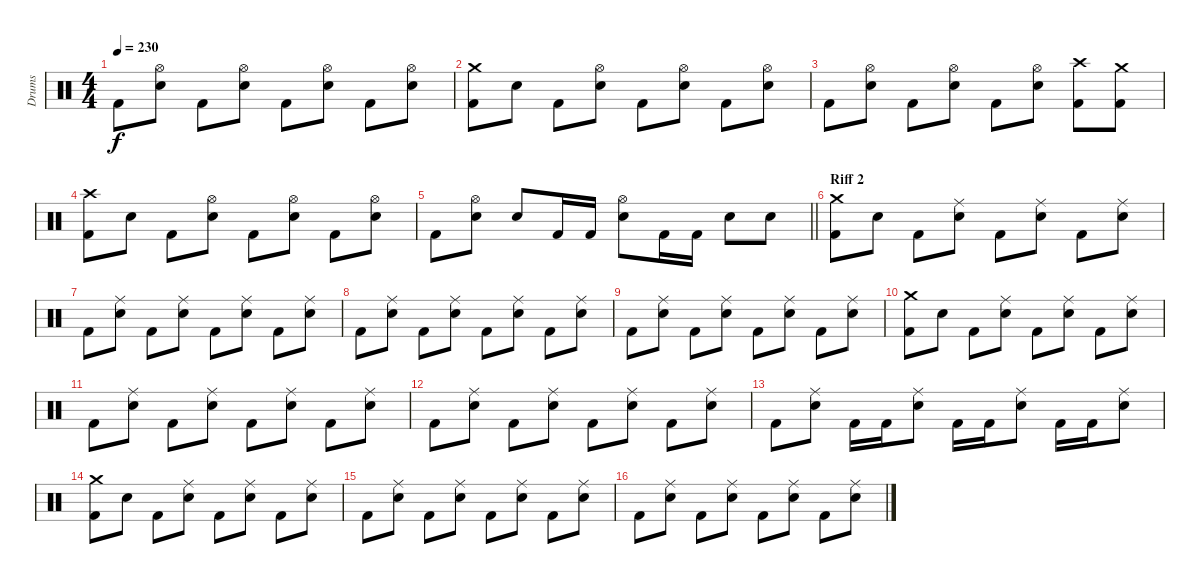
\track ("Drums" "Drums") {instrument percussion}
\staff {score}
\articulation defaults
\ts (4 4)
\tempo 230
\clef neutral
\ks c "Kick (hit) 2".8{dy f}
("Hi-Hat (open)" "Electric Snare (hit)").8 "Kick (hit) 2".8 ("Hi-Hat (open)" "Electric Snare (hit)").8 "Kick (hit) 2".8 ("Hi-Hat (open)" "Electric Snare (hit)").8 "Kick (hit) 2".8 ("Hi-Hat (open)" "Electric Snare (hit)").8 |
("Crash medium (hit)" "Kick (hit) 2").8 "Electric Snare (hit)".8 "Kick (hit) 2".8 ("Hi-Hat (open)" "Electric Snare (hit)").8 "Kick (hit) 2".8 ("Hi-Hat (open)" "Electric Snare (hit)").8 "Kick (hit) 2".8 ("Hi-Hat (open)" "Electric Snare (hit)").8 |
"Kick (hit) 2".8 ("Hi-Hat (open)" "Electric Snare (hit)").8 "Kick (hit) 2".8 ("Hi-Hat (open)" "Electric Snare (hit)").8 "Kick (hit) 2".8 ("Hi-Hat (open)" "Electric Snare (hit)").8 ("Crash high (hit)" "Kick (hit) 2").8 ("Crash medium (hit)" "Kick (hit) 2").8 |
("Kick (hit) 2" "Crash high (hit)").8 "Electric Snare (hit)".8 "Kick (hit) 2".8 ("Electric Snare (hit)" "Hi-Hat (open)").8 "Kick (hit) 2".8 ("Electric Snare (hit)" "Hi-Hat (open)").8 "Kick (hit) 2".8 ("Electric Snare (hit)" "Hi-Hat (open)").8 |
\barLineRight lightlight "Kick (hit) 2".8
("Electric Snare (hit)" "Hi-Hat (open)").8 "Electric Snare (hit)".8 "Kick (hit) 2".16 "Kick (hit) 2".16 ("Hi-Hat (open)" "Electric Snare (hit)").8 "Kick (hit) 2".16 "Kick (hit) 2".16 "Electric Snare (hit)".8 "Electric Snare (hit)".8 |
\section ("" "Riff 2")
("Crash medium (hit)" "Kick (hit) 2").8 "Electric Snare (hit)".8 "Kick (hit) 2".8 ("Electric Snare (hit)" "Ride (middle)").8 "Kick (hit) 2".8 ("Electric Snare (hit)" "Ride (middle)").8 "Kick (hit) 2".8 ("Electric Snare (hit)" "Ride (middle)").8 |
"Kick (hit) 2".8 ("Electric Snare (hit)" "Ride (middle)").8 "Kick (hit) 2".8 ("Electric Snare (hit)" "Ride (middle)").8 "Kick (hit) 2".8 ("Electric Snare (hit)" "Ride (middle)").8 "Kick (hit) 2".8 ("Electric Snare (hit)" "Ride (middle)").8 |
"Kick (hit) 2".8 ("Electric Snare (hit)" "Ride (middle)").8 "Kick (hit) 2".8 ("Electric Snare (hit)" "Ride (middle)").8 "Kick (hit) 2".8 ("Electric Snare (hit)" "Ride (middle)").8 "Kick (hit) 2".8 ("Electric Snare (hit)" "Ride (middle)").8 |
"Kick (hit) 2".8 ("Electric Snare (hit)" "Ride (middle)").8 "Kick (hit) 2".8 ("Electric Snare (hit)" "Ride (middle)").8 "Kick (hit) 2".8 ("Electric Snare (hit)" "Ride (middle)").8 "Kick (hit) 2".8 ("Electric Snare (hit)" "Ride (middle)").8 |
("Crash medium (hit)" "Kick (hit) 2").8 "Electric Snare (hit)".8 "Kick (hit) 2".8 ("Electric Snare (hit)" "Ride (middle)").8 "Kick (hit) 2".8 ("Electric Snare (hit)" "Ride (middle)").8 "Kick (hit) 2".8 ("Electric Snare (hit)" "Ride (middle)").8 |
"Kick (hit) 2".8 ("Electric Snare (hit)" "Ride (middle)").8 "Kick (hit) 2".8 ("Electric Snare (hit)" "Ride (middle)").8 "Kick (hit) 2".8 ("Electric Snare (hit)" "Ride (middle)").8 "Kick (hit) 2".8 ("Electric Snare (hit)" "Ride (middle)").8 |
"Kick (hit) 2".8 ("Electric Snare (hit)" "Ride (middle)").8 "Kick (hit) 2".8 ("Electric Snare (hit)" "Ride (middle)").8 "Kick (hit) 2".8 ("Electric Snare (hit)" "Ride (middle)").8 "Kick (hit) 2".8 ("Electric Snare (hit)" "Ride (middle)").8 |
"Kick (hit) 2".8 ("Electric Snare (hit)" "Ride (middle)").8 "Kick (hit) 2".16 "Kick (hit) 2".16 ("Electric Snare (hit)" "Ride (middle)").8 "Kick (hit) 2".16 "Kick (hit) 2".16 ("Electric Snare (hit)" "Ride (middle)").8 "Kick (hit) 2".16 "Kick (hit) 2".16 ("Electric Snare (hit)" "Ride (middle)").8 |
("Crash medium (hit)" "Kick (hit) 2").8 "Electric Snare (hit)".8 "Kick (hit) 2".8 ("Electric Snare (hit)" "Ride (middle)").8 "Kick (hit) 2".8 ("Electric Snare (hit)" "Ride (middle)").8 "Kick (hit) 2".8 ("Electric Snare (hit)" "Ride (middle)").8 |
"Kick (hit) 2".8 ("Electric Snare (hit)" "Ride (middle)").8 "Kick (hit) 2".8 ("Electric Snare (hit)" "Ride (middle)").8 "Kick (hit) 2".8 ("Electric Snare (hit)" "Ride (middle)").8 "Kick (hit) 2".8 ("Electric Snare (hit)" "Ride (middle)").8 |
"Kick (hit) 2".8 ("Electric Snare (hit)" "Ride (middle)").8 "Kick (hit) 2".8 ("Electric Snare (hit)" "Ride (middle)").8 "Kick (hit) 2".8 ("Electric Snare (hit)" "Ride (middle)").8 "Kick (hit) 2".8 ("Electric Snare (hit)" "Ride (middle)").8
